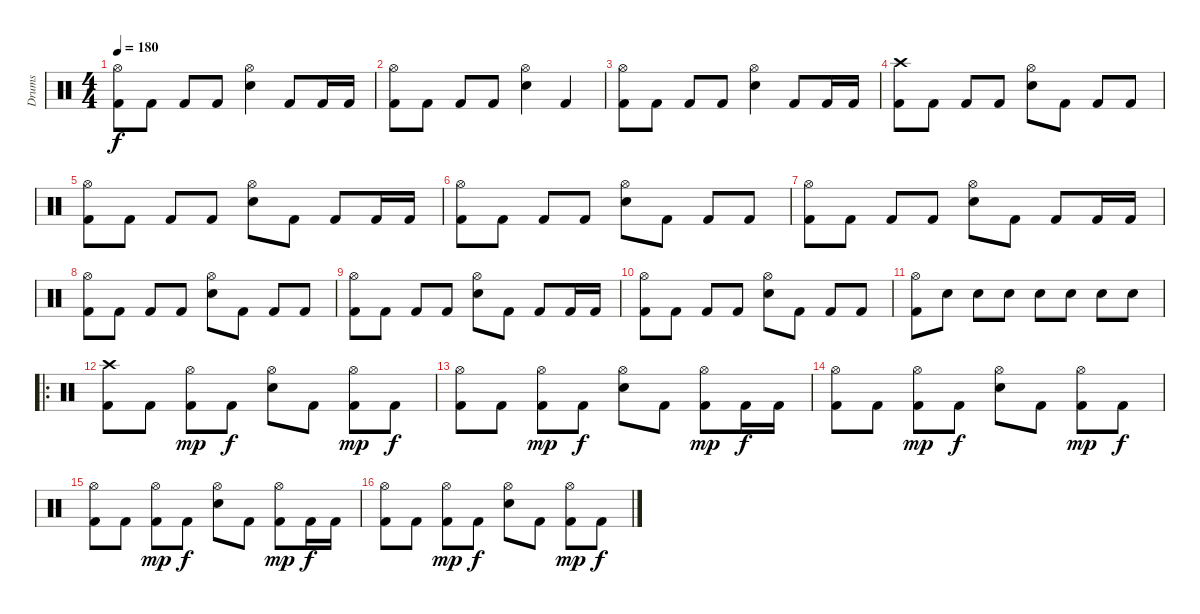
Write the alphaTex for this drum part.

\track ("Drums" "Drums") {instrument percussion}
\staff {score}
\articulation defaults
\ts (4 4)
\tempo 180
\clef neutral
\ks c
("Hi-Hat (open)" "Kick (hit) 2").8{dy f} "Kick (hit) 2".8 "Kick (hit) 2".8 "Kick (hit) 2".8 ("Hi-Hat (open)" "Snare (hit) 2").4 "Kick (hit) 2".8 "Kick (hit) 2".16 "Kick (hit) 2".16 |
("Hi-Hat (open)" "Kick (hit) 2").8 "Kick (hit) 2".8 "Kick (hit) 2".8 "Kick (hit) 2".8 ("Hi-Hat (open)" "Snare (hit) 2").4 "Kick (hit) 2".4 |
("Hi-Hat (open)" "Kick (hit) 2").8 "Kick (hit) 2".8 "Kick (hit) 2".8 "Kick (hit) 2".8 ("Hi-Hat (open)" "Snare (hit) 2").4 "Kick (hit) 2".8 "Kick (hit) 2".16 "Kick (hit) 2".16 |
("Crash high (hit)" "Kick (hit) 2").8 "Kick (hit) 2".8 "Kick (hit) 2".8 "Kick (hit) 2".8 ("Hi-Hat (open)" "Snare (hit) 2").8 "Kick (hit) 2".8 "Kick (hit) 2".8 "Kick (hit) 2".8 |
("Hi-Hat (open)" "Kick (hit) 2").8 "Kick (hit) 2".8 "Kick (hit) 2".8 "Kick (hit) 2".8 ("Hi-Hat (open)" "Snare (hit) 2").8 "Kick (hit) 2".8 "Kick (hit) 2".8 "Kick (hit) 2".16 "Kick (hit) 2".16 |
("Hi-Hat (open)" "Kick (hit) 2").8 "Kick (hit) 2".8 "Kick (hit) 2".8 "Kick (hit) 2".8 ("Hi-Hat (open)" "Snare (hit) 2").8 "Kick (hit) 2".8 "Kick (hit) 2".8 "Kick (hit) 2".8 |
("Hi-Hat (open)" "Kick (hit) 2").8 "Kick (hit) 2".8 "Kick (hit) 2".8 "Kick (hit) 2".8 ("Hi-Hat (open)" "Snare (hit) 2").8 "Kick (hit) 2".8 "Kick (hit) 2".8 "Kick (hit) 2".16 "Kick (hit) 2".16 |
("Hi-Hat (open)" "Kick (hit) 2").8 "Kick (hit) 2".8 "Kick (hit) 2".8 "Kick (hit) 2".8 ("Hi-Hat (open)" "Snare (hit) 2").8 "Kick (hit) 2".8 "Kick (hit) 2".8 "Kick (hit) 2".8 |
("Hi-Hat (open)" "Kick (hit) 2").8 "Kick (hit) 2".8 "Kick (hit) 2".8 "Kick (hit) 2".8 ("Hi-Hat (open)" "Snare (hit) 2").8 "Kick (hit) 2".8 "Kick (hit) 2".8 "Kick (hit) 2".16 "Kick (hit) 2".16 |
("Hi-Hat (open)" "Kick (hit) 2").8 "Kick (hit) 2".8 "Kick (hit) 2".8 "Kick (hit) 2".8 ("Hi-Hat (open)" "Snare (hit) 2").8 "Kick (hit) 2".8 "Kick (hit) 2".8 "Kick (hit) 2".8 |
("Hi-Hat (open)" "Kick (hit) 2").8 "Snare (hit) 2".8 "Snare (hit) 2".8 "Snare (hit) 2".8 "Snare (hit) 2".8 "Snare (hit) 2".8 "Snare (hit) 2".8 "Snare (hit) 2".8 |
\ro
("Crash high (hit)" "Kick (hit) 2").8 "Kick (hit) 2".8 ("Hi-Hat (open)" "Kick (hit) 2").8{dy mp} "Kick (hit) 2".8{dy f} ("Hi-Hat (open)" "Snare (hit) 2").8 "Kick (hit) 2".8 ("Hi-Hat (open)" "Kick (hit) 2").8{dy mp} "Kick (hit) 2".8{dy f} |
("Hi-Hat (open)" "Kick (hit) 2").8 "Kick (hit) 2".8 ("Hi-Hat (open)" "Kick (hit) 2").8{dy mp} "Kick (hit) 2".8{dy f} ("Hi-Hat (open)" "Snare (hit) 2").8 "Kick (hit) 2".8 ("Hi-Hat (open)" "Kick (hit) 2").8{dy mp} "Kick (hit) 2".16{dy f} "Kick (hit) 2".16 |
("Hi-Hat (open)" "Kick (hit) 2").8 "Kick (hit) 2".8 ("Hi-Hat (open)" "Kick (hit) 2").8{dy mp} "Kick (hit) 2".8{dy f} ("Hi-Hat (open)" "Snare (hit) 2").8 "Kick (hit) 2".8 ("Hi-Hat (open)" "Kick (hit) 2").8{dy mp} "Kick (hit) 2".8{dy f} |
("Hi-Hat (open)" "Kick (hit) 2").8 "Kick (hit) 2".8 ("Hi-Hat (open)" "Kick (hit) 2").8{dy mp} "Kick (hit) 2".8{dy f} ("Hi-Hat (open)" "Snare (hit) 2").8 "Kick (hit) 2".8 ("Hi-Hat (open)" "Kick (hit) 2").8{dy mp} "Kick (hit) 2".16{dy f} "Kick (hit) 2".16 |
("Hi-Hat (open)" "Kick (hit) 2").8 "Kick (hit) 2".8 ("Hi-Hat (open)" "Kick (hit) 2").8{dy mp} "Kick (hit) 2".8{dy f} ("Hi-Hat (open)" "Snare (hit) 2").8 "Kick (hit) 2".8 ("Hi-Hat (open)" "Kick (hit) 2").8{dy mp} "Kick (hit) 2".8{dy f}
